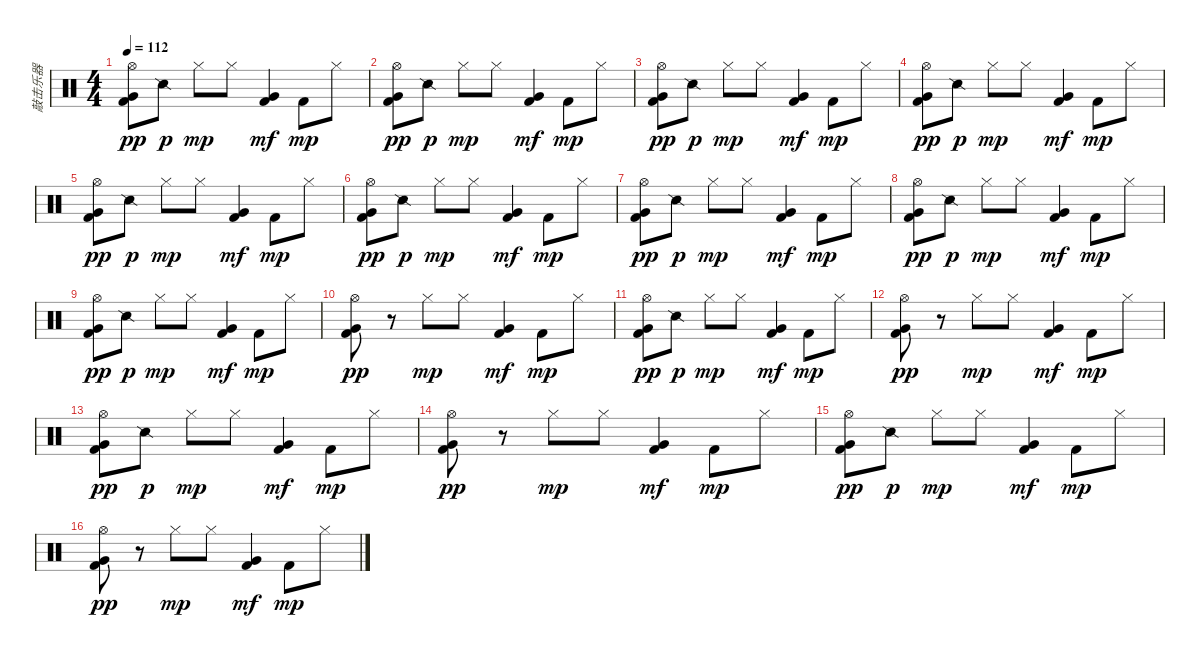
\track ("敲击乐器" "敲击乐器") {instrument percussion}
\staff {score}
\articulation defaults
\ts (4 4)
\tempo 112
\clef neutral
\ks c
("Very Low Tom (hit)" "Kick (hit) 2" "Hi-Hat (open)").8{dy pp} "Snare (side stick) 2".8{dy p} "Hi-Hat (closed)".8{dy mp} "Hi-Hat (closed)".8 ("Very Low Tom (hit)" "Kick (hit) 2").4{dy mf} "Kick (hit) 2".8{dy mp} "Hi-Hat (closed)".8 |
("Very Low Tom (hit)" "Kick (hit) 2" "Hi-Hat (open)").8{dy pp} "Snare (side stick) 2".8{dy p} "Hi-Hat (closed)".8{dy mp} "Hi-Hat (closed)".8 ("Very Low Tom (hit)" "Kick (hit) 2").4{dy mf} "Kick (hit) 2".8{dy mp} "Hi-Hat (closed)".8 |
("Very Low Tom (hit)" "Kick (hit) 2" "Hi-Hat (open)").8{dy pp} "Snare (side stick) 2".8{dy p} "Hi-Hat (closed)".8{dy mp} "Hi-Hat (closed)".8 ("Very Low Tom (hit)" "Kick (hit) 2").4{dy mf} "Kick (hit) 2".8{dy mp} "Hi-Hat (closed)".8 |
("Very Low Tom (hit)" "Kick (hit) 2" "Hi-Hat (open)").8{dy pp} "Snare (side stick) 2".8{dy p} "Hi-Hat (closed)".8{dy mp} "Hi-Hat (closed)".8 ("Very Low Tom (hit)" "Kick (hit) 2").4{dy mf} "Kick (hit) 2".8{dy mp} "Hi-Hat (closed)".8 |
("Very Low Tom (hit)" "Kick (hit) 2" "Hi-Hat (open)").8{dy pp} "Snare (side stick) 2".8{dy p} "Hi-Hat (closed)".8{dy mp} "Hi-Hat (closed)".8 ("Very Low Tom (hit)" "Kick (hit) 2").4{dy mf} "Kick (hit) 2".8{dy mp} "Hi-Hat (closed)".8 |
("Very Low Tom (hit)" "Kick (hit) 2" "Hi-Hat (open)").8{dy pp} "Snare (side stick) 2".8{dy p} "Hi-Hat (closed)".8{dy mp} "Hi-Hat (closed)".8 ("Very Low Tom (hit)" "Kick (hit) 2").4{dy mf} "Kick (hit) 2".8{dy mp} "Hi-Hat (closed)".8 |
("Very Low Tom (hit)" "Kick (hit) 2" "Hi-Hat (open)").8{dy pp} "Snare (side stick) 2".8{dy p} "Hi-Hat (closed)".8{dy mp} "Hi-Hat (closed)".8 ("Very Low Tom (hit)" "Kick (hit) 2").4{dy mf} "Kick (hit) 2".8{dy mp} "Hi-Hat (closed)".8 |
("Very Low Tom (hit)" "Kick (hit) 2" "Hi-Hat (open)").8{dy pp} "Snare (side stick) 2".8{dy p} "Hi-Hat (closed)".8{dy mp} "Hi-Hat (closed)".8 ("Very Low Tom (hit)" "Kick (hit) 2").4{dy mf} "Kick (hit) 2".8{dy mp} "Hi-Hat (closed)".8 |
("Very Low Tom (hit)" "Kick (hit) 2" "Hi-Hat (open)").8{dy pp} "Snare (side stick) 2".8{dy p} "Hi-Hat (closed)".8{dy mp} "Hi-Hat (closed)".8 ("Very Low Tom (hit)" "Kick (hit) 2").4{dy mf} "Kick (hit) 2".8{dy mp} "Hi-Hat (closed)".8 |
("Very Low Tom (hit)" "Kick (hit) 2" "Hi-Hat (open)").8{dy pp} r.8 "Hi-Hat (closed)".8{dy mp} "Hi-Hat (closed)".8 ("Very Low Tom (hit)" "Kick (hit) 2").4{dy mf} "Kick (hit) 2".8{dy mp} "Hi-Hat (closed)".8 |
("Very Low Tom (hit)" "Kick (hit) 2" "Hi-Hat (open)").8{dy pp} "Snare (side stick) 2".8{dy p} "Hi-Hat (closed)".8{dy mp} "Hi-Hat (closed)".8 ("Very Low Tom (hit)" "Kick (hit) 2").4{dy mf} "Kick (hit) 2".8{dy mp} "Hi-Hat (closed)".8 |
("Very Low Tom (hit)" "Kick (hit) 2" "Hi-Hat (open)").8{dy pp} r.8 "Hi-Hat (closed)".8{dy mp} "Hi-Hat (closed)".8 ("Very Low Tom (hit)" "Kick (hit) 2").4{dy mf} "Kick (hit) 2".8{dy mp} "Hi-Hat (closed)".8 |
("Very Low Tom (hit)" "Kick (hit) 2" "Hi-Hat (open)").8{dy pp} "Snare (side stick) 2".8{dy p} "Hi-Hat (closed)".8{dy mp} "Hi-Hat (closed)".8 ("Very Low Tom (hit)" "Kick (hit) 2").4{dy mf} "Kick (hit) 2".8{dy mp} "Hi-Hat (closed)".8 |
("Very Low Tom (hit)" "Kick (hit) 2" "Hi-Hat (open)").8{dy pp} r.8 "Hi-Hat (closed)".8{dy mp} "Hi-Hat (closed)".8 ("Very Low Tom (hit)" "Kick (hit) 2").4{dy mf} "Kick (hit) 2".8{dy mp} "Hi-Hat (closed)".8 |
("Very Low Tom (hit)" "Kick (hit) 2" "Hi-Hat (open)").8{dy pp} "Snare (side stick) 2".8{dy p} "Hi-Hat (closed)".8{dy mp} "Hi-Hat (closed)".8 ("Very Low Tom (hit)" "Kick (hit) 2").4{dy mf} "Kick (hit) 2".8{dy mp} "Hi-Hat (closed)".8 |
("Very Low Tom (hit)" "Kick (hit) 2" "Hi-Hat (open)").8{dy pp} r.8 "Hi-Hat (closed)".8{dy mp} "Hi-Hat (closed)".8 ("Very Low Tom (hit)" "Kick (hit) 2").4{dy mf} "Kick (hit) 2".8{dy mp} "Hi-Hat (closed)".8
